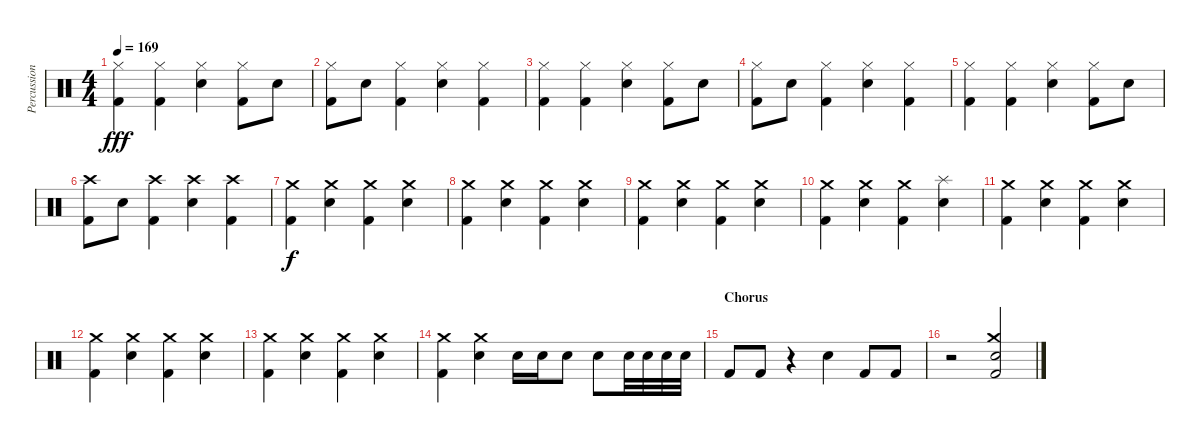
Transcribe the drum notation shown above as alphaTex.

\track ("Percussion" "Percussion") {instrument percussion}
\staff {score}
\articulation defaults
\ts (4 4)
\tempo 169
\clef neutral
\ks c
("Hi-Hat (closed)" "Kick (hit) 2").4{dy fff} ("Hi-Hat (closed)" "Kick (hit) 2").4 ("Hi-Hat (closed)" "Electric Snare (hit)").4 ("Hi-Hat (closed)" "Kick (hit) 2").8 "Electric Snare (hit)".8 |
("Hi-Hat (closed)" "Kick (hit) 2").8 "Electric Snare (hit)".8 ("Hi-Hat (closed)" "Kick (hit) 2").4 ("Hi-Hat (closed)" "Electric Snare (hit)").4 ("Hi-Hat (closed)" "Kick (hit) 2").4 |
("Hi-Hat (closed)" "Kick (hit) 2").4 ("Hi-Hat (closed)" "Kick (hit) 2").4 ("Hi-Hat (closed)" "Electric Snare (hit)").4 ("Hi-Hat (closed)" "Kick (hit) 2").8 "Electric Snare (hit)".8 |
("Hi-Hat (closed)" "Kick (hit) 2").8 "Electric Snare (hit)".8 ("Hi-Hat (closed)" "Kick (hit) 2").4 ("Hi-Hat (closed)" "Electric Snare (hit)").4 ("Hi-Hat (closed)" "Kick (hit) 2").4 |
("Hi-Hat (closed)" "Kick (hit) 2").4 ("Hi-Hat (closed)" "Kick (hit) 2").4 ("Hi-Hat (closed)" "Electric Snare (hit)").4 ("Hi-Hat (closed)" "Kick (hit) 2").8 "Electric Snare (hit)".8 |
("Crash high (hit)" "Kick (hit) 2").8 "Electric Snare (hit)".8 ("Crash high (hit)" "Kick (hit) 2").4 ("Crash high (hit)" "Electric Snare (hit)").4 ("Crash high (hit)" "Kick (hit) 2").4 |
("Crash medium (hit)" "Kick (hit) 2").4{dy f} ("Snare (hit) 2" "Crash medium (hit)").4 ("Crash medium (hit)" "Kick (hit) 2").4 ("Snare (hit) 2" "Crash medium (hit)").4 |
("Crash medium (hit)" "Kick (hit) 2").4 ("Snare (hit) 2" "Crash medium (hit)").4 ("Crash medium (hit)" "Kick (hit) 2").4 ("Snare (hit) 2" "Crash medium (hit)").4 |
("Crash medium (hit)" "Kick (hit) 2").4 ("Snare (hit) 2" "Crash medium (hit)").4 ("Crash medium (hit)" "Kick (hit) 2").4 ("Snare (hit) 2" "Crash medium (hit)").4 |
("Crash medium (hit)" "Kick (hit) 2").4 ("Snare (hit) 2" "Crash medium (hit)").4 ("Crash medium (hit)" "Kick (hit) 2").4 ("Snare (hit) 2" "Splash (hit)").4 |
("Crash medium (hit)" "Kick (hit) 2").4 ("Snare (hit) 2" "Crash medium (hit)").4 ("Crash medium (hit)" "Kick (hit) 2").4 ("Snare (hit) 2" "Crash medium (hit)").4 |
("Crash medium (hit)" "Kick (hit) 2").4 ("Snare (hit) 2" "Crash medium (hit)").4 ("Crash medium (hit)" "Kick (hit) 2").4 ("Snare (hit) 2" "Crash medium (hit)").4 |
("Crash medium (hit)" "Kick (hit) 2").4 ("Snare (hit) 2" "Crash medium (hit)").4 ("Crash medium (hit)" "Kick (hit) 2").4 ("Snare (hit) 2" "Crash medium (hit)").4 |
("Crash medium (hit)" "Kick (hit) 2").4 ("Snare (hit) 2" "Crash medium (hit)").4 "Snare (hit) 2".16 "Snare (hit) 2".16 "Snare (hit) 2".8 "Snare (hit) 2".8 "Snare (hit) 2".32 "Snare (hit) 2".32 "Snare (hit) 2".32 "Snare (hit) 2".32 |
\section ("" "Chorus")
"Kick (hit) 2".8 "Kick (hit) 2".8 r.4 "Snare (hit) 2".4 "Kick (hit) 2".8 "Kick (hit) 2".8 |
r.2 ("Snare (hit) 2" "Kick (hit) 2" "Crash medium (hit)").2
